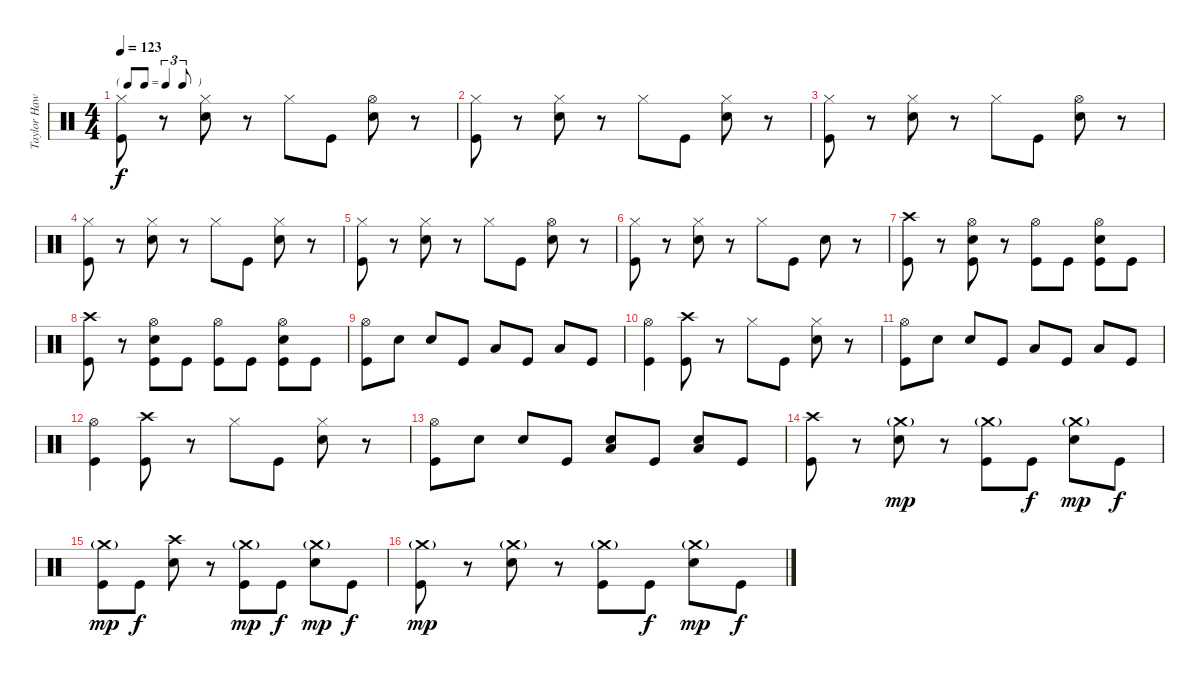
\track ("Taylor Hawkins - Drums" "Taylor Haw") {instrument percussion}
\staff {score}
\articulation defaults
\ts (4 4)
\tf triplet8th
\tempo 123
\clef neutral
\ks c
("Hi-Hat (closed)" "Kick (hit)").8{dy f} r.8 ("Hi-Hat (closed)" "Electric Snare (hit)").8 r.8 "Hi-Hat (closed)".8 "Kick (hit)".8 ("Hi-Hat (open)" "Electric Snare (hit)").8 r.8 |
("Hi-Hat (closed)" "Kick (hit)").8 r.8 ("Hi-Hat (closed)" "Electric Snare (hit)").8 r.8 "Hi-Hat (closed)".8 "Kick (hit)".8 ("Hi-Hat (closed)" "Electric Snare (hit)").8 r.8 |
("Hi-Hat (closed)" "Kick (hit)").8 r.8 ("Hi-Hat (closed)" "Electric Snare (hit)").8 r.8 "Hi-Hat (closed)".8 "Kick (hit)".8 ("Hi-Hat (open)" "Electric Snare (hit)").8 r.8 |
("Hi-Hat (closed)" "Kick (hit)").8 r.8 ("Hi-Hat (closed)" "Electric Snare (hit)").8 r.8 "Hi-Hat (closed)".8 "Kick (hit)".8 ("Hi-Hat (closed)" "Electric Snare (hit)").8 r.8 |
("Hi-Hat (closed)" "Kick (hit)").8 r.8 ("Hi-Hat (closed)" "Electric Snare (hit)").8 r.8 "Hi-Hat (closed)".8 "Kick (hit)".8 ("Hi-Hat (open)" "Electric Snare (hit)").8 r.8 |
("Hi-Hat (closed)" "Kick (hit)").8 r.8 ("Hi-Hat (closed)" "Electric Snare (hit)").8 r.8 "Hi-Hat (closed)".8 "Kick (hit)".8 "Electric Snare (hit)".8 r.8 |
("Crash high (hit)" "Kick (hit)").8 r.8 ("Hi-Hat (open)" "Electric Snare (hit)" "Kick (hit)").8 r.8 ("Hi-Hat (open)" "Kick (hit)").8 "Kick (hit)".8 ("Hi-Hat (open)" "Electric Snare (hit)" "Kick (hit)").8 "Kick (hit)".8 |
("Crash high (hit)" "Kick (hit)").8 r.8 ("Hi-Hat (open)" "Electric Snare (hit)" "Kick (hit)").8 "Kick (hit)".8 ("Hi-Hat (open)" "Kick (hit)").8 "Kick (hit)".8 ("Hi-Hat (open)" "Electric Snare (hit)" "Kick (hit)").8 "Kick (hit)".8 |
("Hi-Hat (open)" "Kick (hit)").8 "Electric Snare (hit)".8 "Electric Snare (hit)".8 "Kick (hit)".8 "Low Tom (hit)".8 "Kick (hit)".8 "Low Floor Tom (hit)".8 "Kick (hit)".8 |
("Hi-Hat (open)" "Kick (hit)").4 ("Crash high (hit)" "Kick (hit)").8 r.8 "Hi-Hat (closed)".8 "Kick (hit)".8 ("Hi-Hat (closed)" "Electric Snare (hit)").8 r.8 |
("Hi-Hat (open)" "Kick (hit)").8 "Electric Snare (hit)".8 "Electric Snare (hit)".8 "Kick (hit)".8 "Low Tom (hit)".8 "Kick (hit)".8 "Low Floor Tom (hit)".8 "Kick (hit)".8 |
("Hi-Hat (open)" "Kick (hit)").4 ("Crash high (hit)" "Kick (hit)").8 r.8 "Hi-Hat (closed)".8 "Kick (hit)".8 ("Hi-Hat (closed)" "Electric Snare (hit)").8 r.8 |
("Hi-Hat (open)" "Kick (hit)").8 "Electric Snare (hit)".8 "Electric Snare (hit)".8 "Kick (hit)".8 ("Electric Snare (hit)" "Low Tom (hit)").8 "Kick (hit)".8 ("Electric Snare (hit)" "Low Floor Tom (hit)").8 "Kick (hit)".8 |
("Crash high (hit)" "Kick (hit)").8 r.8 ("Crash medium (hit)"{g} "Electric Snare (hit)").8{dy mp} r.8 ("Crash medium (hit)"{g} "Kick (hit)").8 "Kick (hit)".8{dy f} ("Crash medium (hit)"{g} "Electric Snare (hit)").8{dy mp} "Kick (hit)".8{dy f} |
("Crash medium (hit)"{g} "Kick (hit)").8{dy mp} "Kick (hit)".8{dy f} ("Crash high (hit)" "Electric Snare (hit)").8 r.8 ("Crash medium (hit)"{g} "Kick (hit)").8{dy mp} "Kick (hit)".8{dy f} ("Crash medium (hit)"{g} "Electric Snare (hit)").8{dy mp} "Kick (hit)".8{dy f} |
("Crash medium (hit)"{g} "Kick (hit)").8{dy mp} r.8 ("Crash medium (hit)"{g} "Electric Snare (hit)").8 r.8 ("Crash medium (hit)"{g} "Kick (hit)").8 "Kick (hit)".8{dy f} ("Crash medium (hit)"{g} "Electric Snare (hit)").8{dy mp} "Kick (hit)".8{dy f}
